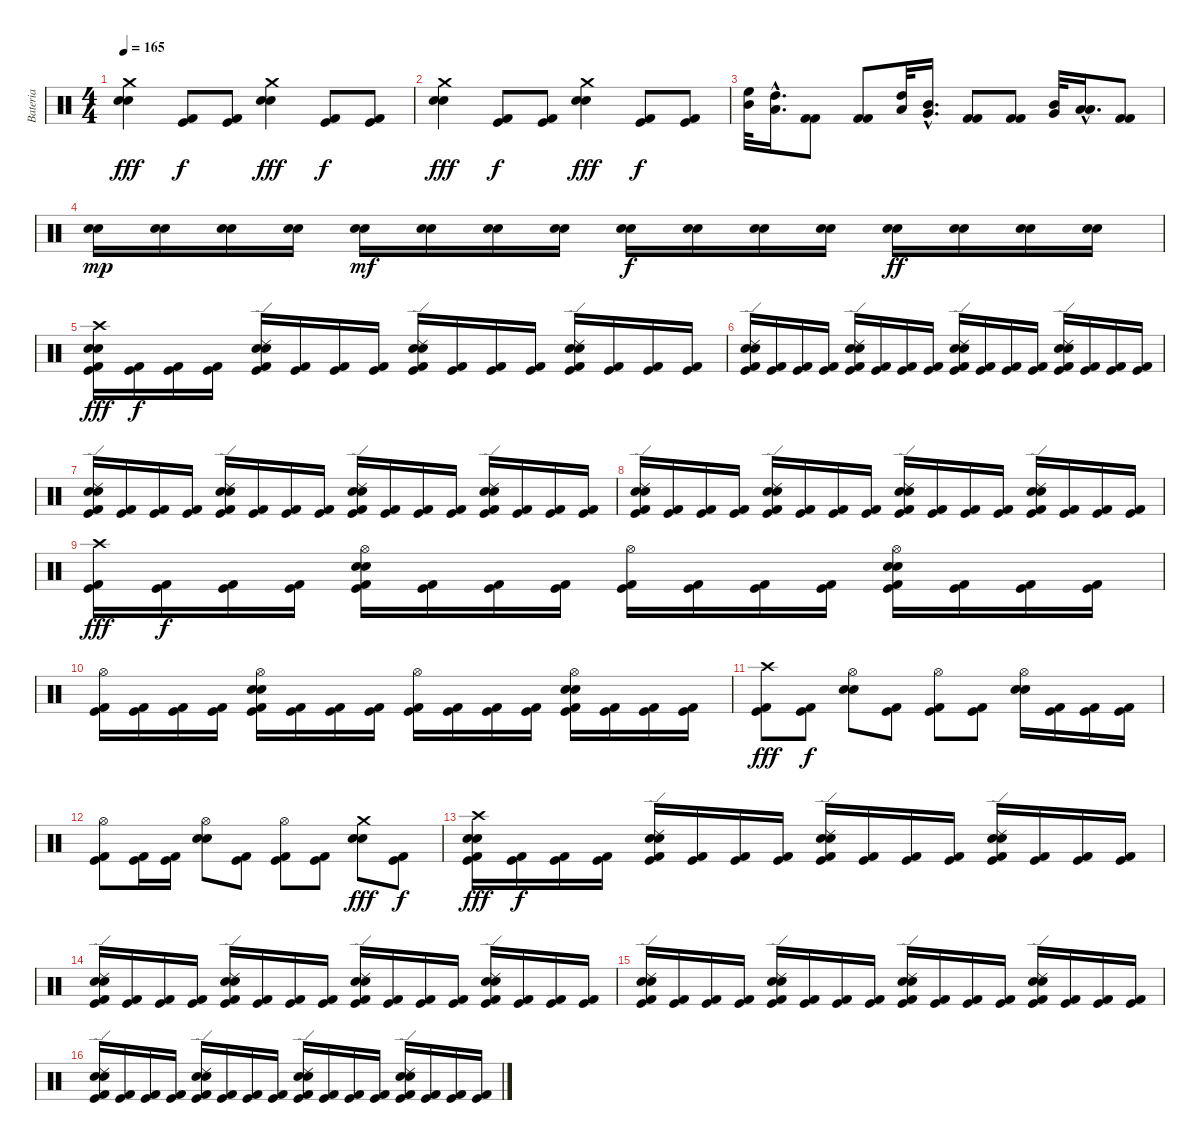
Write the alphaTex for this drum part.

\track ("Bateria" "Bateria") {instrument percussion}
\staff {score}
\articulation defaults
\ts (4 4)
\tempo 165
\clef neutral
\ks c
("Crash medium (hit)" "Electric Snare (hit)" "Snare (hit) 2").4{dy fff} ("Kick (hit) 2" "Kick (hit)").8{dy f} ("Kick (hit) 2" "Kick (hit)").8 ("Crash medium (hit)" "Electric Snare (hit)" "Snare (hit) 2").4{dy fff} ("Kick (hit) 2" "Kick (hit)").8{dy f} ("Kick (hit) 2" "Kick (hit)").8 |
("Crash medium (hit)" "Electric Snare (hit)" "Snare (hit) 2").4{dy fff} ("Kick (hit) 2" "Kick (hit)").8{dy f} ("Kick (hit) 2" "Kick (hit)").8 ("Crash medium (hit)" "Electric Snare (hit)" "Snare (hit) 2").4{dy fff} ("Kick (hit) 2" "Kick (hit)").8{dy f} ("Kick (hit) 2" "Kick (hit)").8 |
("High Floor Tom (hit)" "Mid Tom (hit)").32 ("High Tom (hit)"{hac} "Low Tom (hit)"{hac}).16{d} ("Kick (hit) 2" "Kick (hit) 2").8 ("Kick (hit) 2" "Kick (hit) 2").8 ("High Tom (hit)" "Low Tom (hit)").32 ("Mid Tom (hit)"{hac} "Very Low Tom (hit)"{hac}).16{d} ("Kick (hit) 2" "Kick (hit) 2").8 ("Kick (hit) 2" "Kick (hit) 2").8 ("Mid Tom (hit)" "Very Low Tom (hit)").32 ("Low Tom (hit)"{hac} "Low Floor Tom (hit)"{hac}).16{d} ("Kick (hit) 2" "Kick (hit) 2").8 |
("Electric Snare (hit)" "Snare (hit) 2").16{dy mp} ("Electric Snare (hit)" "Snare (hit) 2").16 ("Electric Snare (hit)" "Snare (hit) 2").16 ("Electric Snare (hit)" "Snare (hit) 2").16 ("Electric Snare (hit)" "Snare (hit) 2").16{dy mf} ("Electric Snare (hit)" "Snare (hit) 2").16 ("Electric Snare (hit)" "Snare (hit) 2").16 ("Electric Snare (hit)" "Snare (hit) 2").16 ("Electric Snare (hit)" "Snare (hit) 2").16{dy f} ("Electric Snare (hit)" "Snare (hit) 2").16 ("Electric Snare (hit)" "Snare (hit) 2").16 ("Electric Snare (hit)" "Snare (hit) 2").16 ("Electric Snare (hit)" "Snare (hit) 2").16{dy ff} ("Electric Snare (hit)" "Snare (hit) 2").16 ("Electric Snare (hit)" "Snare (hit) 2").16 ("Electric Snare (hit)" "Snare (hit) 2").16 |
("Crash high (hit)" "Electric Snare (hit)" "Snare (hit) 2" "Kick (hit) 2" "Kick (hit)").16{dy fff} ("Kick (hit) 2" "Kick (hit)").16{dy f} ("Kick (hit) 2" "Kick (hit)").16 ("Kick (hit) 2" "Kick (hit)").16 ("Ride (edge) 2" "Electric Snare (hit)" "Snare (hit) 2" "Kick (hit) 2" "Kick (hit)").16 ("Kick (hit) 2" "Kick (hit)").16 ("Kick (hit) 2" "Kick (hit)").16 ("Kick (hit) 2" "Kick (hit)").16 ("Ride (edge) 2" "Electric Snare (hit)" "Snare (hit) 2" "Kick (hit) 2" "Kick (hit)").16 ("Kick (hit) 2" "Kick (hit)").16 ("Kick (hit) 2" "Kick (hit)").16 ("Kick (hit) 2" "Kick (hit)").16 ("Ride (edge) 2" "Electric Snare (hit)" "Snare (hit) 2" "Kick (hit) 2" "Kick (hit)").16 ("Kick (hit) 2" "Kick (hit)").16 ("Kick (hit) 2" "Kick (hit)").16 ("Kick (hit) 2" "Kick (hit)").16 |
("Ride (edge) 2" "Electric Snare (hit)" "Snare (hit) 2" "Kick (hit) 2" "Kick (hit)").16 ("Kick (hit) 2" "Kick (hit)").16 ("Kick (hit) 2" "Kick (hit)").16 ("Kick (hit) 2" "Kick (hit)").16 ("Ride (edge) 2" "Electric Snare (hit)" "Snare (hit) 2" "Kick (hit) 2" "Kick (hit)").16 ("Kick (hit) 2" "Kick (hit)").16 ("Kick (hit) 2" "Kick (hit)").16 ("Kick (hit) 2" "Kick (hit)").16 ("Ride (edge) 2" "Electric Snare (hit)" "Snare (hit) 2" "Kick (hit) 2" "Kick (hit)").16 ("Kick (hit) 2" "Kick (hit)").16 ("Kick (hit) 2" "Kick (hit)").16 ("Kick (hit) 2" "Kick (hit)").16 ("Ride (edge) 2" "Electric Snare (hit)" "Snare (hit) 2" "Kick (hit) 2" "Kick (hit)").16 ("Kick (hit) 2" "Kick (hit)").16 ("Kick (hit) 2" "Kick (hit)").16 ("Kick (hit) 2" "Kick (hit)").16 |
("Ride (edge) 2" "Electric Snare (hit)" "Snare (hit) 2" "Kick (hit) 2" "Kick (hit)").16 ("Kick (hit) 2" "Kick (hit)").16 ("Kick (hit) 2" "Kick (hit)").16 ("Kick (hit) 2" "Kick (hit)").16 ("Ride (edge) 2" "Electric Snare (hit)" "Snare (hit) 2" "Kick (hit) 2" "Kick (hit)").16 ("Kick (hit) 2" "Kick (hit)").16 ("Kick (hit) 2" "Kick (hit)").16 ("Kick (hit) 2" "Kick (hit)").16 ("Ride (edge) 2" "Electric Snare (hit)" "Snare (hit) 2" "Kick (hit) 2" "Kick (hit)").16 ("Kick (hit) 2" "Kick (hit)").16 ("Kick (hit) 2" "Kick (hit)").16 ("Kick (hit) 2" "Kick (hit)").16 ("Ride (edge) 2" "Electric Snare (hit)" "Snare (hit) 2" "Kick (hit) 2" "Kick (hit)").16 ("Kick (hit) 2" "Kick (hit)").16 ("Kick (hit) 2" "Kick (hit)").16 ("Kick (hit) 2" "Kick (hit)").16 |
("Ride (edge) 2" "Electric Snare (hit)" "Snare (hit) 2" "Kick (hit) 2" "Kick (hit)").16 ("Kick (hit) 2" "Kick (hit)").16 ("Kick (hit) 2" "Kick (hit)").16 ("Kick (hit) 2" "Kick (hit)").16 ("Ride (edge) 2" "Electric Snare (hit)" "Snare (hit) 2" "Kick (hit) 2" "Kick (hit)").16 ("Kick (hit) 2" "Kick (hit)").16 ("Kick (hit) 2" "Kick (hit)").16 ("Kick (hit) 2" "Kick (hit)").16 ("Ride (edge) 2" "Electric Snare (hit)" "Snare (hit) 2" "Kick (hit) 2" "Kick (hit)").16 ("Kick (hit) 2" "Kick (hit)").16 ("Kick (hit) 2" "Kick (hit)").16 ("Kick (hit) 2" "Kick (hit)").16 ("Ride (edge) 2" "Electric Snare (hit)" "Snare (hit) 2" "Kick (hit) 2" "Kick (hit)").16 ("Kick (hit) 2" "Kick (hit)").16 ("Kick (hit) 2" "Kick (hit)").16 ("Kick (hit) 2" "Kick (hit)").16 |
("Crash high (hit)" "Kick (hit) 2" "Kick (hit)").16{dy fff} ("Kick (hit) 2" "Kick (hit)").16{dy f} ("Kick (hit) 2" "Kick (hit)").16 ("Kick (hit) 2" "Kick (hit)").16 ("Hi-Hat (open)" "Electric Snare (hit)" "Snare (hit) 2" "Kick (hit) 2" "Kick (hit)").16 ("Kick (hit) 2" "Kick (hit)").16 ("Kick (hit) 2" "Kick (hit)").16 ("Kick (hit) 2" "Kick (hit)").16 ("Hi-Hat (open)" "Kick (hit) 2" "Kick (hit)").16 ("Kick (hit) 2" "Kick (hit)").16 ("Kick (hit) 2" "Kick (hit)").16 ("Kick (hit) 2" "Kick (hit)").16 ("Hi-Hat (open)" "Electric Snare (hit)" "Snare (hit) 2" "Kick (hit) 2" "Kick (hit)").16 ("Kick (hit) 2" "Kick (hit)").16 ("Kick (hit) 2" "Kick (hit)").16 ("Kick (hit) 2" "Kick (hit)").16 |
("Hi-Hat (open)" "Kick (hit) 2" "Kick (hit)").16 ("Kick (hit) 2" "Kick (hit)").16 ("Kick (hit) 2" "Kick (hit)").16 ("Kick (hit) 2" "Kick (hit)").16 ("Hi-Hat (open)" "Electric Snare (hit)" "Snare (hit) 2" "Kick (hit) 2" "Kick (hit)").16 ("Kick (hit) 2" "Kick (hit)").16 ("Kick (hit) 2" "Kick (hit)").16 ("Kick (hit) 2" "Kick (hit)").16 ("Hi-Hat (open)" "Kick (hit) 2" "Kick (hit)").16 ("Kick (hit) 2" "Kick (hit)").16 ("Kick (hit) 2" "Kick (hit)").16 ("Kick (hit) 2" "Kick (hit)").16 ("Hi-Hat (open)" "Electric Snare (hit)" "Snare (hit) 2" "Kick (hit) 2" "Kick (hit)").16 ("Kick (hit) 2" "Kick (hit)").16 ("Kick (hit) 2" "Kick (hit)").16 ("Kick (hit) 2" "Kick (hit)").16 |
("Crash high (hit)" "Kick (hit) 2" "Kick (hit)").8{dy fff} ("Kick (hit) 2" "Kick (hit)").8{dy f} ("Hi-Hat (open)" "Electric Snare (hit)" "Snare (hit) 2").8 ("Kick (hit) 2" "Kick (hit)").8 ("Hi-Hat (open)" "Kick (hit) 2" "Kick (hit)").8 ("Kick (hit) 2" "Kick (hit)").8 ("Hi-Hat (open)" "Electric Snare (hit)" "Snare (hit) 2").16 ("Kick (hit) 2" "Kick (hit)").16 ("Kick (hit) 2" "Kick (hit)").16 ("Kick (hit) 2" "Kick (hit)").16 |
("Hi-Hat (open)" "Kick (hit) 2" "Kick (hit)").8 ("Kick (hit) 2" "Kick (hit)").16 ("Kick (hit) 2" "Kick (hit)").16 ("Hi-Hat (open)" "Electric Snare (hit)" "Snare (hit) 2").8 ("Kick (hit) 2" "Kick (hit)").8 ("Hi-Hat (open)" "Kick (hit) 2" "Kick (hit)").8 ("Kick (hit) 2" "Kick (hit)").8 ("Crash medium (hit)" "Electric Snare (hit)" "Snare (hit) 2").8{dy fff} ("Kick (hit) 2" "Kick (hit)").8{dy f} |
("Crash high (hit)" "Electric Snare (hit)" "Snare (hit) 2" "Kick (hit) 2" "Kick (hit)").16{dy fff} ("Kick (hit) 2" "Kick (hit)").16{dy f} ("Kick (hit) 2" "Kick (hit)").16 ("Kick (hit) 2" "Kick (hit)").16 ("Ride (edge) 2" "Electric Snare (hit)" "Snare (hit) 2" "Kick (hit) 2" "Kick (hit)").16 ("Kick (hit) 2" "Kick (hit)").16 ("Kick (hit) 2" "Kick (hit)").16 ("Kick (hit) 2" "Kick (hit)").16 ("Ride (edge) 2" "Electric Snare (hit)" "Snare (hit) 2" "Kick (hit) 2" "Kick (hit)").16 ("Kick (hit) 2" "Kick (hit)").16 ("Kick (hit) 2" "Kick (hit)").16 ("Kick (hit) 2" "Kick (hit)").16 ("Ride (edge) 2" "Electric Snare (hit)" "Snare (hit) 2" "Kick (hit) 2" "Kick (hit)").16 ("Kick (hit) 2" "Kick (hit)").16 ("Kick (hit) 2" "Kick (hit)").16 ("Kick (hit) 2" "Kick (hit)").16 |
("Ride (edge) 2" "Electric Snare (hit)" "Snare (hit) 2" "Kick (hit) 2" "Kick (hit)").16 ("Kick (hit) 2" "Kick (hit)").16 ("Kick (hit) 2" "Kick (hit)").16 ("Kick (hit) 2" "Kick (hit)").16 ("Ride (edge) 2" "Electric Snare (hit)" "Snare (hit) 2" "Kick (hit) 2" "Kick (hit)").16 ("Kick (hit) 2" "Kick (hit)").16 ("Kick (hit) 2" "Kick (hit)").16 ("Kick (hit) 2" "Kick (hit)").16 ("Ride (edge) 2" "Electric Snare (hit)" "Snare (hit) 2" "Kick (hit) 2" "Kick (hit)").16 ("Kick (hit) 2" "Kick (hit)").16 ("Kick (hit) 2" "Kick (hit)").16 ("Kick (hit) 2" "Kick (hit)").16 ("Ride (edge) 2" "Electric Snare (hit)" "Snare (hit) 2" "Kick (hit) 2" "Kick (hit)").16 ("Kick (hit) 2" "Kick (hit)").16 ("Kick (hit) 2" "Kick (hit)").16 ("Kick (hit) 2" "Kick (hit)").16 |
("Ride (edge) 2" "Electric Snare (hit)" "Snare (hit) 2" "Kick (hit) 2" "Kick (hit)").16 ("Kick (hit) 2" "Kick (hit)").16 ("Kick (hit) 2" "Kick (hit)").16 ("Kick (hit) 2" "Kick (hit)").16 ("Ride (edge) 2" "Electric Snare (hit)" "Snare (hit) 2" "Kick (hit) 2" "Kick (hit)").16 ("Kick (hit) 2" "Kick (hit)").16 ("Kick (hit) 2" "Kick (hit)").16 ("Kick (hit) 2" "Kick (hit)").16 ("Ride (edge) 2" "Electric Snare (hit)" "Snare (hit) 2" "Kick (hit) 2" "Kick (hit)").16 ("Kick (hit) 2" "Kick (hit)").16 ("Kick (hit) 2" "Kick (hit)").16 ("Kick (hit) 2" "Kick (hit)").16 ("Ride (edge) 2" "Electric Snare (hit)" "Snare (hit) 2" "Kick (hit) 2" "Kick (hit)").16 ("Kick (hit) 2" "Kick (hit)").16 ("Kick (hit) 2" "Kick (hit)").16 ("Kick (hit) 2" "Kick (hit)").16 |
("Ride (edge) 2" "Electric Snare (hit)" "Snare (hit) 2" "Kick (hit) 2" "Kick (hit)").16 ("Kick (hit) 2" "Kick (hit)").16 ("Kick (hit) 2" "Kick (hit)").16 ("Kick (hit) 2" "Kick (hit)").16 ("Ride (edge) 2" "Electric Snare (hit)" "Snare (hit) 2" "Kick (hit) 2" "Kick (hit)").16 ("Kick (hit) 2" "Kick (hit)").16 ("Kick (hit) 2" "Kick (hit)").16 ("Kick (hit) 2" "Kick (hit)").16 ("Ride (edge) 2" "Electric Snare (hit)" "Snare (hit) 2" "Kick (hit) 2" "Kick (hit)").16 ("Kick (hit) 2" "Kick (hit)").16 ("Kick (hit) 2" "Kick (hit)").16 ("Kick (hit) 2" "Kick (hit)").16 ("Ride (edge) 2" "Electric Snare (hit)" "Snare (hit) 2" "Kick (hit) 2" "Kick (hit)").16 ("Kick (hit) 2" "Kick (hit)").16 ("Kick (hit) 2" "Kick (hit)").16 ("Kick (hit) 2" "Kick (hit)").16
